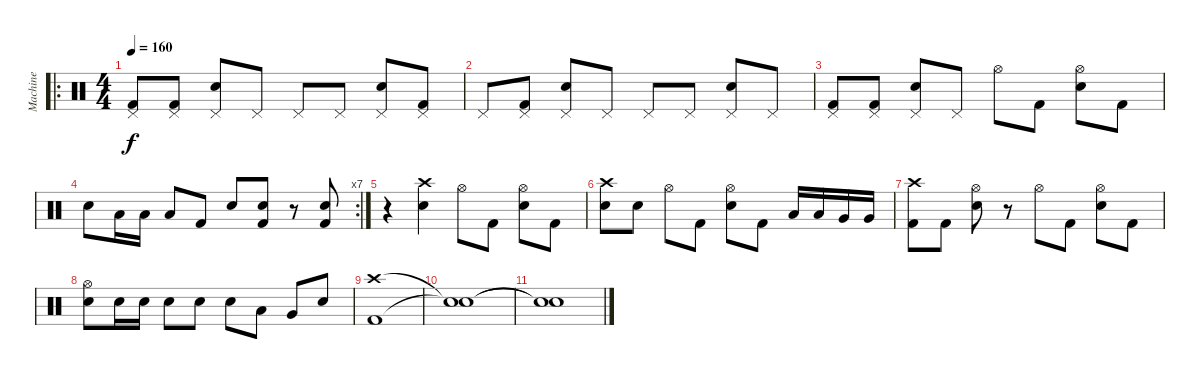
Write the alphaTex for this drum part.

\track ("Machine" "Machine") {instrument percussion}
\staff {score}
\articulation defaults
\ro
\ts (4 4)
\tempo 160
\clef neutral
\ks c
("Pedal Hi-Hat (hit)" "Kick (hit) 2").8{dy f} ("Pedal Hi-Hat (hit)" "Kick (hit) 2").8 ("Pedal Hi-Hat (hit)" "Electric Snare (hit)").8 "Pedal Hi-Hat (hit)".8 "Pedal Hi-Hat (hit)".8 "Pedal Hi-Hat (hit)".8 ("Pedal Hi-Hat (hit)" "Electric Snare (hit)").8 ("Pedal Hi-Hat (hit)" "Kick (hit) 2").8 |
"Pedal Hi-Hat (hit)".8 ("Pedal Hi-Hat (hit)" "Kick (hit) 2").8 ("Pedal Hi-Hat (hit)" "Electric Snare (hit)").8 "Pedal Hi-Hat (hit)".8 "Pedal Hi-Hat (hit)".8 "Pedal Hi-Hat (hit)".8 ("Pedal Hi-Hat (hit)" "Electric Snare (hit)").8 "Pedal Hi-Hat (hit)".8 |
("Pedal Hi-Hat (hit)" "Kick (hit) 2").8 ("Pedal Hi-Hat (hit)" "Kick (hit) 2").8 ("Pedal Hi-Hat (hit)" "Electric Snare (hit)").8 "Pedal Hi-Hat (hit)".8 "Hi-Hat (open)".8 "Kick (hit) 2".8 ("Hi-Hat (open)" "Electric Snare (hit)").8 "Kick (hit) 2".8 |
\rc 7 "Electric Snare (hit)".8 "Low Tom (hit)".16 "Low Tom (hit)".16 "Low Tom (hit)".8 "Kick (hit) 2".8 "Electric Snare (hit)".8
("Snare (hit)"{x} "Kick (hit) 2").8 r.8 ("Snare (hit)"{x} "Kick (hit) 2").8 |
r.4 ("Crash high (hit)" "Electric Snare (hit)").4 "Hi-Hat (open)".8 "Kick (hit) 2".8 ("Hi-Hat (open)" "Electric Snare (hit)").8 "Kick (hit) 2".8 |
("Crash high (hit)" "Electric Snare (hit)").8 "Electric Snare (hit)".8 "Hi-Hat (open)".8 "Kick (hit) 2".8 ("Hi-Hat (open)" "Electric Snare (hit)").8 "Kick (hit) 2".8 "Low Tom (hit)".16 "Low Tom (hit)".16 "Very Low Tom (hit)".16 "Very Low Tom (hit)".16 |
("Crash high (hit)" "Kick (hit) 2").8 "Kick (hit) 2".8 ("Hi-Hat (open)" "Electric Snare (hit)").8 r.8 "Hi-Hat (open)".8 "Kick (hit) 2".8 ("Hi-Hat (open)" "Electric Snare (hit)").8 "Kick (hit) 2".8 |
("Hi-Hat (open)" "Electric Snare (hit)").8 "Electric Snare (hit)".16 "Electric Snare (hit)".16 "Electric Snare (hit)".8 "Electric Snare (hit)".8 "Electric Snare (hit)".8 "Low Tom (hit)".8 "Very Low Tom (hit)".8 "Electric Snare (hit)".8 |
("Crash high (hit)" "Kick (hit) 2").1 |
("Snare (hit)"{t} "Snare (hit)"{t}).1 |
("Snare (hit)"{t} "Snare (hit)"{t}).1
